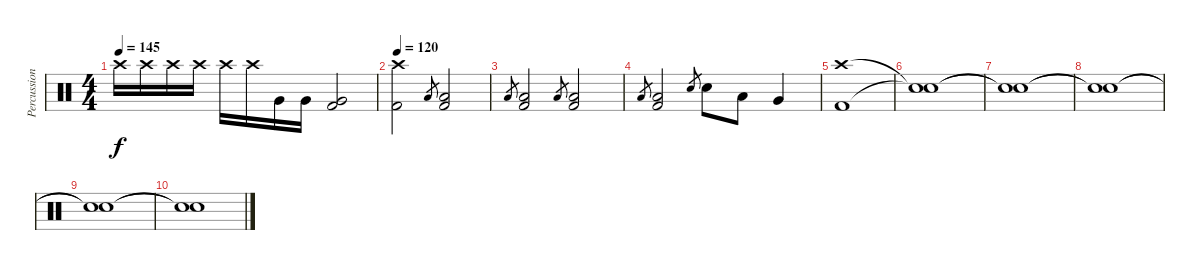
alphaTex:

\track ("Percussion" "Percussion") {instrument percussion}
\staff {score}
\articulation defaults
\ts (4 4)
\tempo 145
\clef neutral
\ks c "Crash high (hit)".16{dy f} "Crash high (hit)".16 "Crash high (hit)".16 "Crash high (hit)".16 "Crash high (hit)".16 "Crash high (hit)".16 "Very Low Tom (hit)".16 "Very Low Tom (hit)".16
("Very Low Tom (hit)" "Kick (hit) 2").2 |
\tempo 120
("Crash high (hit)" "Kick (hit) 2").2 "Low Tom (hit)".8{gr} ("Low Tom (hit)" "Kick (hit) 2").2 |
"Low Tom (hit)".8{gr} ("Low Tom (hit)" "Kick (hit) 2").2 "Low Tom (hit)".8{gr} ("Low Tom (hit)" "Kick (hit) 2").2 |
"Low Tom (hit)".8{gr} ("Low Tom (hit)" "Kick (hit) 2").2 "Electric Snare (hit)".8{gr} "Electric Snare (hit)".8 "Low Tom (hit)".8 "Very Low Tom (hit)".4 |
("Crash high (hit)" "Kick (hit) 2").1 |
("Snare (hit)"{t} "Snare (hit)"{t}).1 |
("Snare (hit)"{t} "Snare (hit)"{t}).1 |
("Snare (hit)"{t} "Snare (hit)"{t}).1 |
("Snare (hit)"{t} "Snare (hit)"{t}).1 |
("Snare (hit)"{t} "Snare (hit)"{t}).1
